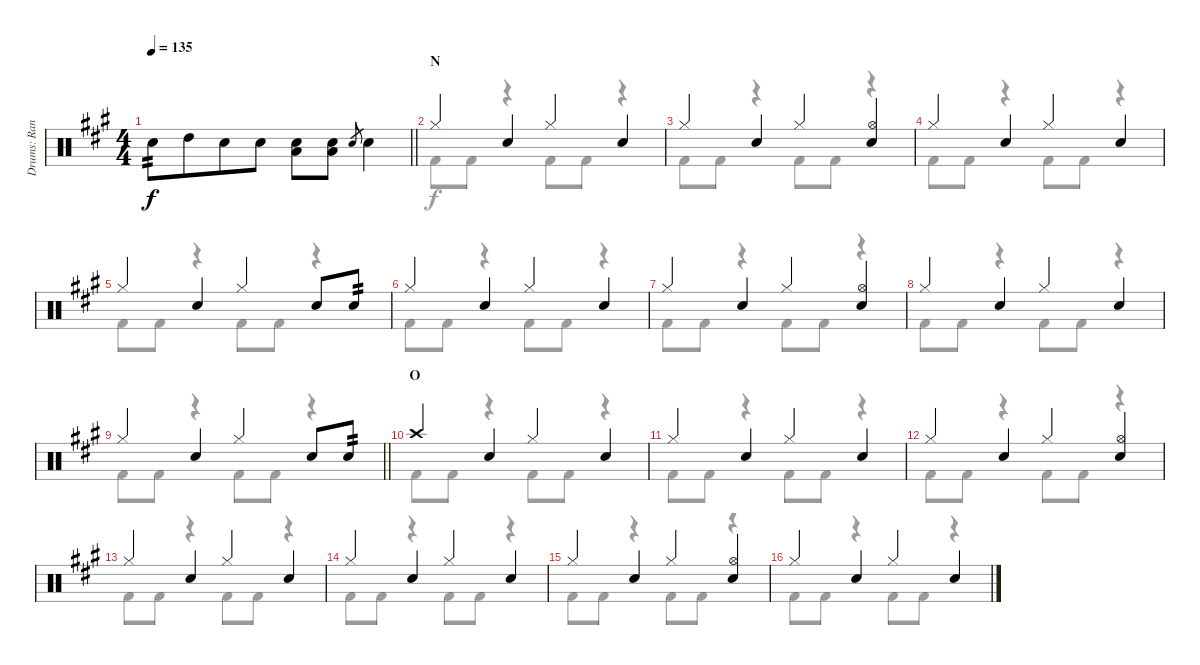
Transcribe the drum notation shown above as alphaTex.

\track ("Drums: Randy" "Drums: Ran") {instrument percussion}
\staff {score}
\articulation defaults
\voice
\ts (4 4)
\tempo 135
\clef neutral
\barLineRight lightlight
\ks a "Snare (hit) 2".8{tp 2 dy f} "High Tom (hit)".8{beam merge} "Snare (hit) 2".8 "Snare (hit) 2".8
("Snare (hit) 2" "Low Tom (hit)").8 ("Snare (hit) 2" "Low Tom (hit)").8 "Electric Snare (hit)".8{gr} "Snare (hit) 2".4 |
\section ("" "N")
"Hi-Hat (closed)".4 "Snare (hit) 2".4 "Hi-Hat (closed)".4 "Snare (hit) 2".4 |
"Hi-Hat (closed)".4 "Snare (hit) 2".4 "Hi-Hat (closed)".4 ("Hi-Hat (open)" "Snare (hit) 2").4 |
"Hi-Hat (closed)".4 "Snare (hit) 2".4 "Hi-Hat (closed)".4 "Snare (hit) 2".4 |
"Hi-Hat (closed)".4 "Snare (hit) 2".4 "Hi-Hat (closed)".4 "Snare (hit) 2".8 "Snare (hit) 2".8{tp 2} |
"Hi-Hat (closed)".4 "Snare (hit) 2".4 "Hi-Hat (closed)".4 "Snare (hit) 2".4 |
"Hi-Hat (closed)".4 "Snare (hit) 2".4 "Hi-Hat (closed)".4 ("Hi-Hat (open)" "Snare (hit) 2").4 |
"Hi-Hat (closed)".4 "Snare (hit) 2".4 "Hi-Hat (closed)".4 "Snare (hit) 2".4 |
\barLineRight lightlight "Hi-Hat (closed)".4 "Snare (hit) 2".4 "Hi-Hat (closed)".4 "Snare (hit) 2".8 "Snare (hit) 2".8{tp 2}
|
\section ("" "O")
"Crash high (hit)".4 "Snare (hit) 2".4 "Hi-Hat (closed)".4 "Snare (hit) 2".4 |
"Hi-Hat (closed)".4 "Snare (hit) 2".4 "Hi-Hat (closed)".4 "Snare (hit) 2".4 |
"Hi-Hat (closed)".4 "Snare (hit) 2".4 "Hi-Hat (closed)".4 ("Hi-Hat (open)" "Snare (hit) 2").4 |
"Hi-Hat (closed)".4 "Snare (hit) 2".4 "Hi-Hat (closed)".4 "Snare (hit) 2".4 |
"Hi-Hat (closed)".4 "Snare (hit) 2".4 "Hi-Hat (closed)".4 "Snare (hit) 2".4 |
"Hi-Hat (closed)".4 "Snare (hit) 2".4 "Hi-Hat (closed)".4 ("Hi-Hat (open)" "Snare (hit) 2").4 |
"Hi-Hat (closed)".4 "Snare (hit) 2".4 "Hi-Hat (closed)".4 "Snare (hit) 2".4
\voice
\clef neutral
\ottava regular
\simile none
\barLineRight lightlight
\ks a
|
"Kick (hit) 2".8 "Kick (hit) 2".8 r.4 "Kick (hit) 2".8 "Kick (hit) 2".8 r.4 |
"Kick (hit) 2".8 "Kick (hit) 2".8 r.4 "Kick (hit) 2".8 "Kick (hit) 2".8 r.4 |
"Kick (hit) 2".8 "Kick (hit) 2".8 r.4 "Kick (hit) 2".8 "Kick (hit) 2".8 r.4 |
"Kick (hit) 2".8 "Kick (hit) 2".8 r.4 "Kick (hit) 2".8 "Kick (hit) 2".8 r.4 |
"Kick (hit) 2".8 "Kick (hit) 2".8 r.4 "Kick (hit) 2".8 "Kick (hit) 2".8 r.4 |
"Kick (hit) 2".8 "Kick (hit) 2".8 r.4 "Kick (hit) 2".8 "Kick (hit) 2".8 r.4 |
"Kick (hit) 2".8 "Kick (hit) 2".8 r.4 "Kick (hit) 2".8 "Kick (hit) 2".8 r.4 |
\barLineRight lightlight "Kick (hit) 2".8 "Kick (hit) 2".8
r.4 "Kick (hit) 2".8 "Kick (hit) 2".8 r.4 |
"Kick (hit) 2".8 "Kick (hit) 2".8 r.4 "Kick (hit) 2".8 "Kick (hit) 2".8 r.4 |
"Kick (hit) 2".8 "Kick (hit) 2".8 r.4 "Kick (hit) 2".8 "Kick (hit) 2".8 r.4 |
"Kick (hit) 2".8 "Kick (hit) 2".8 r.4 "Kick (hit) 2".8 "Kick (hit) 2".8 r.4 |
"Kick (hit) 2".8 "Kick (hit) 2".8 r.4 "Kick (hit) 2".8 "Kick (hit) 2".8 r.4 |
"Kick (hit) 2".8 "Kick (hit) 2".8 r.4 "Kick (hit) 2".8 "Kick (hit) 2".8 r.4 |
"Kick (hit) 2".8 "Kick (hit) 2".8 r.4 "Kick (hit) 2".8 "Kick (hit) 2".8 r.4 |
"Kick (hit) 2".8 "Kick (hit) 2".8 r.4 "Kick (hit) 2".8 "Kick (hit) 2".8 r.4
